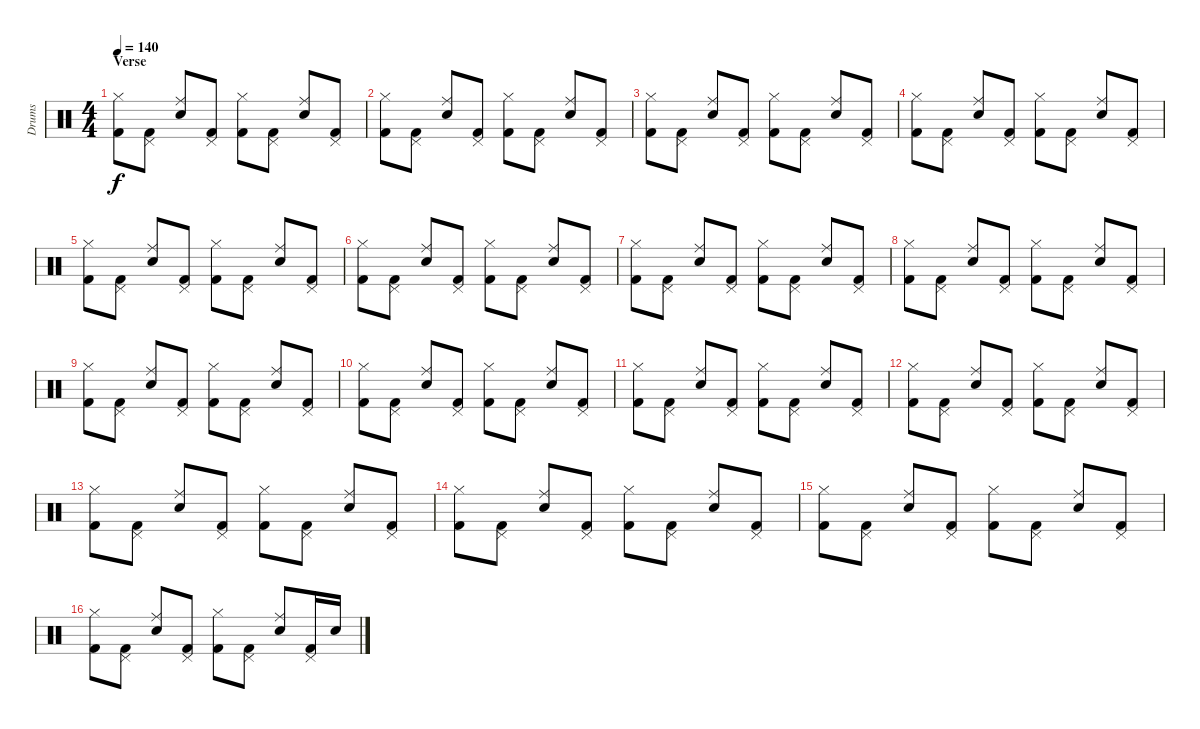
\track ("Drums" "Drums") {instrument percussion}
\staff {score}
\articulation defaults
\ts (4 4)
\section ("" "Verse")
\tempo 140
\clef neutral
\ks c
("Kick (hit) 2" "Hi-Hat (closed)").8{dy f} ("Kick (hit) 2" "Pedal Hi-Hat (hit)").8 ("Electric Snare (hit)" "Ride (middle)").8 ("Kick (hit) 2" "Pedal Hi-Hat (hit)").8 ("Kick (hit) 2" "Hi-Hat (closed)").8 ("Kick (hit) 2" "Pedal Hi-Hat (hit)").8 ("Electric Snare (hit)" "Ride (middle)").8 ("Kick (hit) 2" "Pedal Hi-Hat (hit)").8 |
("Kick (hit) 2" "Hi-Hat (closed)").8 ("Kick (hit) 2" "Pedal Hi-Hat (hit)").8 ("Electric Snare (hit)" "Ride (middle)").8 ("Kick (hit) 2" "Pedal Hi-Hat (hit)").8 ("Kick (hit) 2" "Hi-Hat (closed)").8 ("Kick (hit) 2" "Pedal Hi-Hat (hit)").8 ("Electric Snare (hit)" "Ride (middle)").8 ("Kick (hit) 2" "Pedal Hi-Hat (hit)").8 |
("Kick (hit) 2" "Hi-Hat (closed)").8 ("Kick (hit) 2" "Pedal Hi-Hat (hit)").8 ("Electric Snare (hit)" "Ride (middle)").8 ("Kick (hit) 2" "Pedal Hi-Hat (hit)").8 ("Kick (hit) 2" "Hi-Hat (closed)").8 ("Kick (hit) 2" "Pedal Hi-Hat (hit)").8 ("Electric Snare (hit)" "Ride (middle)").8 ("Kick (hit) 2" "Pedal Hi-Hat (hit)").8 |
("Kick (hit) 2" "Hi-Hat (closed)").8 ("Kick (hit) 2" "Pedal Hi-Hat (hit)").8 ("Electric Snare (hit)" "Ride (middle)").8 ("Kick (hit) 2" "Pedal Hi-Hat (hit)").8 ("Kick (hit) 2" "Hi-Hat (closed)").8 ("Kick (hit) 2" "Pedal Hi-Hat (hit)").8 ("Electric Snare (hit)" "Ride (middle)").8 ("Kick (hit) 2" "Pedal Hi-Hat (hit)").8 |
("Kick (hit) 2" "Hi-Hat (closed)").8 ("Kick (hit) 2" "Pedal Hi-Hat (hit)").8 ("Electric Snare (hit)" "Ride (middle)").8 ("Kick (hit) 2" "Pedal Hi-Hat (hit)").8 ("Kick (hit) 2" "Hi-Hat (closed)").8 ("Kick (hit) 2" "Pedal Hi-Hat (hit)").8 ("Electric Snare (hit)" "Ride (middle)").8 ("Kick (hit) 2" "Pedal Hi-Hat (hit)").8 |
("Kick (hit) 2" "Hi-Hat (closed)").8 ("Kick (hit) 2" "Pedal Hi-Hat (hit)").8 ("Electric Snare (hit)" "Ride (middle)").8 ("Kick (hit) 2" "Pedal Hi-Hat (hit)").8 ("Kick (hit) 2" "Hi-Hat (closed)").8 ("Kick (hit) 2" "Pedal Hi-Hat (hit)").8 ("Electric Snare (hit)" "Ride (middle)").8 ("Kick (hit) 2" "Pedal Hi-Hat (hit)").8 |
("Kick (hit) 2" "Hi-Hat (closed)").8 ("Kick (hit) 2" "Pedal Hi-Hat (hit)").8 ("Electric Snare (hit)" "Ride (middle)").8 ("Kick (hit) 2" "Pedal Hi-Hat (hit)").8 ("Kick (hit) 2" "Hi-Hat (closed)").8 ("Kick (hit) 2" "Pedal Hi-Hat (hit)").8 ("Electric Snare (hit)" "Ride (middle)").8 ("Kick (hit) 2" "Pedal Hi-Hat (hit)").8 |
("Kick (hit) 2" "Hi-Hat (closed)").8 ("Kick (hit) 2" "Pedal Hi-Hat (hit)").8 ("Electric Snare (hit)" "Ride (middle)").8 ("Kick (hit) 2" "Pedal Hi-Hat (hit)").8 ("Kick (hit) 2" "Hi-Hat (closed)").8 ("Kick (hit) 2" "Pedal Hi-Hat (hit)").8 ("Electric Snare (hit)" "Ride (middle)").8 ("Kick (hit) 2" "Pedal Hi-Hat (hit)").8 |
("Kick (hit) 2" "Hi-Hat (closed)").8 ("Kick (hit) 2" "Pedal Hi-Hat (hit)").8 ("Electric Snare (hit)" "Ride (middle)").8 ("Kick (hit) 2" "Pedal Hi-Hat (hit)").8 ("Kick (hit) 2" "Hi-Hat (closed)").8 ("Kick (hit) 2" "Pedal Hi-Hat (hit)").8 ("Electric Snare (hit)" "Ride (middle)").8 ("Kick (hit) 2" "Pedal Hi-Hat (hit)").8 |
("Kick (hit) 2" "Hi-Hat (closed)").8 ("Kick (hit) 2" "Pedal Hi-Hat (hit)").8 ("Electric Snare (hit)" "Ride (middle)").8 ("Kick (hit) 2" "Pedal Hi-Hat (hit)").8 ("Kick (hit) 2" "Hi-Hat (closed)").8 ("Kick (hit) 2" "Pedal Hi-Hat (hit)").8 ("Electric Snare (hit)" "Ride (middle)").8 ("Kick (hit) 2" "Pedal Hi-Hat (hit)").8 |
("Kick (hit) 2" "Hi-Hat (closed)").8 ("Kick (hit) 2" "Pedal Hi-Hat (hit)").8 ("Electric Snare (hit)" "Ride (middle)").8 ("Kick (hit) 2" "Pedal Hi-Hat (hit)").8 ("Kick (hit) 2" "Hi-Hat (closed)").8 ("Kick (hit) 2" "Pedal Hi-Hat (hit)").8 ("Electric Snare (hit)" "Ride (middle)").8 ("Kick (hit) 2" "Pedal Hi-Hat (hit)").8 |
("Kick (hit) 2" "Hi-Hat (closed)").8 ("Kick (hit) 2" "Pedal Hi-Hat (hit)").8 ("Electric Snare (hit)" "Ride (middle)").8 ("Kick (hit) 2" "Pedal Hi-Hat (hit)").8 ("Kick (hit) 2" "Hi-Hat (closed)").8 ("Kick (hit) 2" "Pedal Hi-Hat (hit)").8 ("Electric Snare (hit)" "Ride (middle)").8 ("Kick (hit) 2" "Pedal Hi-Hat (hit)").8 |
("Kick (hit) 2" "Hi-Hat (closed)").8 ("Kick (hit) 2" "Pedal Hi-Hat (hit)").8 ("Electric Snare (hit)" "Ride (middle)").8 ("Kick (hit) 2" "Pedal Hi-Hat (hit)").8 ("Kick (hit) 2" "Hi-Hat (closed)").8 ("Kick (hit) 2" "Pedal Hi-Hat (hit)").8 ("Electric Snare (hit)" "Ride (middle)").8 ("Kick (hit) 2" "Pedal Hi-Hat (hit)").8 |
("Kick (hit) 2" "Hi-Hat (closed)").8 ("Kick (hit) 2" "Pedal Hi-Hat (hit)").8 ("Electric Snare (hit)" "Ride (middle)").8 ("Kick (hit) 2" "Pedal Hi-Hat (hit)").8 ("Kick (hit) 2" "Hi-Hat (closed)").8 ("Kick (hit) 2" "Pedal Hi-Hat (hit)").8 ("Electric Snare (hit)" "Ride (middle)").8 ("Kick (hit) 2" "Pedal Hi-Hat (hit)").8 |
("Kick (hit) 2" "Hi-Hat (closed)").8 ("Kick (hit) 2" "Pedal Hi-Hat (hit)").8 ("Electric Snare (hit)" "Ride (middle)").8 ("Kick (hit) 2" "Pedal Hi-Hat (hit)").8 ("Kick (hit) 2" "Hi-Hat (closed)").8 ("Kick (hit) 2" "Pedal Hi-Hat (hit)").8 ("Electric Snare (hit)" "Ride (middle)").8 ("Kick (hit) 2" "Pedal Hi-Hat (hit)").8 |
("Kick (hit) 2" "Hi-Hat (closed)").8 ("Kick (hit) 2" "Pedal Hi-Hat (hit)").8 ("Electric Snare (hit)" "Ride (middle)").8 ("Kick (hit) 2" "Pedal Hi-Hat (hit)").8 ("Kick (hit) 2" "Hi-Hat (closed)").8 ("Kick (hit) 2" "Pedal Hi-Hat (hit)").8 ("Electric Snare (hit)" "Ride (middle)").8 ("Kick (hit) 2" "Pedal Hi-Hat (hit)").16 "Electric Snare (hit)".16
